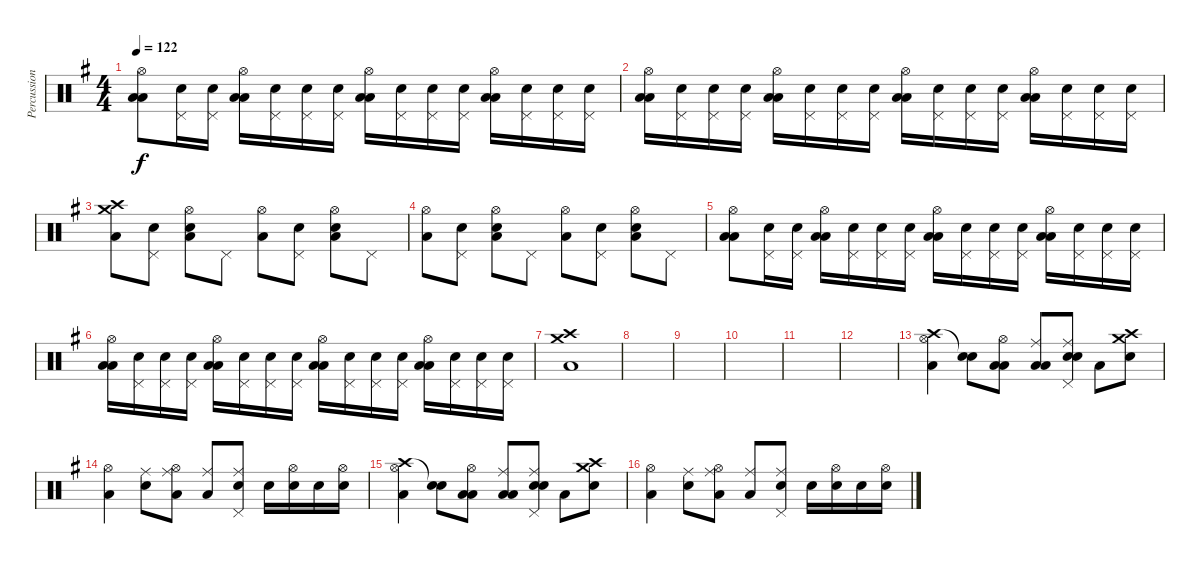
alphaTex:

\track ("Percussion" "Percussion") {instrument percussion}
\staff {score}
\articulation defaults
\ts (4 4)
\tempo 122
\clef neutral
\ks g
("Hi-Hat (open)" "Low Floor Tom (hit)" "Low Tom (hit)").8{dy f} ("Pedal Hi-Hat (hit)" "Snare (hit) 2").16 ("Pedal Hi-Hat (hit)" "Snare (hit) 2").16 ("Hi-Hat (open)" "Low Floor Tom (hit)" "Low Tom (hit)").16 ("Pedal Hi-Hat (hit)" "Snare (hit) 2").16 ("Pedal Hi-Hat (hit)" "Snare (hit) 2").16 ("Pedal Hi-Hat (hit)" "Snare (hit) 2").16 ("Hi-Hat (open)" "Low Floor Tom (hit)" "Low Tom (hit)").16 ("Pedal Hi-Hat (hit)" "Snare (hit) 2").16 ("Pedal Hi-Hat (hit)" "Snare (hit) 2").16 ("Pedal Hi-Hat (hit)" "Snare (hit) 2").16 ("Hi-Hat (open)" "Low Floor Tom (hit)" "Low Tom (hit)").16 ("Pedal Hi-Hat (hit)" "Snare (hit) 2").16 ("Pedal Hi-Hat (hit)" "Snare (hit) 2").16 ("Pedal Hi-Hat (hit)" "Snare (hit) 2").16 |
("Hi-Hat (open)" "Low Floor Tom (hit)" "Low Tom (hit)").16 ("Pedal Hi-Hat (hit)" "Snare (hit) 2").16 ("Pedal Hi-Hat (hit)" "Snare (hit) 2").16 ("Pedal Hi-Hat (hit)" "Snare (hit) 2").16 ("Hi-Hat (open)" "Low Floor Tom (hit)" "Low Tom (hit)").16 ("Pedal Hi-Hat (hit)" "Snare (hit) 2").16 ("Pedal Hi-Hat (hit)" "Snare (hit) 2").16 ("Pedal Hi-Hat (hit)" "Snare (hit) 2").16 ("Hi-Hat (open)" "Low Floor Tom (hit)" "Low Tom (hit)").16 ("Pedal Hi-Hat (hit)" "Snare (hit) 2").16 ("Pedal Hi-Hat (hit)" "Snare (hit) 2").16 ("Pedal Hi-Hat (hit)" "Snare (hit) 2").16 ("Hi-Hat (open)" "Low Floor Tom (hit)" "Low Tom (hit)").16 ("Pedal Hi-Hat (hit)" "Snare (hit) 2").16 ("Pedal Hi-Hat (hit)" "Snare (hit) 2").16 ("Pedal Hi-Hat (hit)" "Snare (hit) 2").16 |
("Crash high (hit)" "Crash medium (hit)" "Low Tom (hit)").8 ("Pedal Hi-Hat (hit)" "Snare (hit) 2").8 ("Hi-Hat (open)" "Snare (hit) 2" "Low Tom (hit)").8 "Pedal Hi-Hat (hit)".8 ("Hi-Hat (open)" "Low Tom (hit)").8 ("Pedal Hi-Hat (hit)" "Snare (hit) 2").8 ("Hi-Hat (open)" "Snare (hit) 2" "Low Tom (hit)").8 "Pedal Hi-Hat (hit)".8 |
("Hi-Hat (open)" "Low Tom (hit)").8 ("Pedal Hi-Hat (hit)" "Snare (hit) 2").8 ("Hi-Hat (open)" "Snare (hit) 2" "Low Tom (hit)").8 "Pedal Hi-Hat (hit)".8 ("Hi-Hat (open)" "Low Tom (hit)").8 ("Pedal Hi-Hat (hit)" "Snare (hit) 2").8 ("Hi-Hat (open)" "Snare (hit) 2" "Low Tom (hit)").8 "Pedal Hi-Hat (hit)".8 |
("Hi-Hat (open)" "Low Floor Tom (hit)" "Low Tom (hit)").8 ("Pedal Hi-Hat (hit)" "Snare (hit) 2").16 ("Pedal Hi-Hat (hit)" "Snare (hit) 2").16 ("Hi-Hat (open)" "Low Floor Tom (hit)" "Low Tom (hit)").16 ("Pedal Hi-Hat (hit)" "Snare (hit) 2").16 ("Pedal Hi-Hat (hit)" "Snare (hit) 2").16 ("Pedal Hi-Hat (hit)" "Snare (hit) 2").16 ("Hi-Hat (open)" "Low Floor Tom (hit)" "Low Tom (hit)").16 ("Pedal Hi-Hat (hit)" "Snare (hit) 2").16 ("Pedal Hi-Hat (hit)" "Snare (hit) 2").16 ("Pedal Hi-Hat (hit)" "Snare (hit) 2").16 ("Hi-Hat (open)" "Low Floor Tom (hit)" "Low Tom (hit)").16 ("Pedal Hi-Hat (hit)" "Snare (hit) 2").16 ("Pedal Hi-Hat (hit)" "Snare (hit) 2").16 ("Pedal Hi-Hat (hit)" "Snare (hit) 2").16 |
("Hi-Hat (open)" "Low Floor Tom (hit)" "Low Tom (hit)").16 ("Pedal Hi-Hat (hit)" "Snare (hit) 2").16 ("Pedal Hi-Hat (hit)" "Snare (hit) 2").16 ("Pedal Hi-Hat (hit)" "Snare (hit) 2").16 ("Hi-Hat (open)" "Low Floor Tom (hit)" "Low Tom (hit)").16 ("Pedal Hi-Hat (hit)" "Snare (hit) 2").16 ("Pedal Hi-Hat (hit)" "Snare (hit) 2").16 ("Pedal Hi-Hat (hit)" "Snare (hit) 2").16 ("Hi-Hat (open)" "Low Floor Tom (hit)" "Low Tom (hit)").16 ("Pedal Hi-Hat (hit)" "Snare (hit) 2").16 ("Pedal Hi-Hat (hit)" "Snare (hit) 2").16 ("Pedal Hi-Hat (hit)" "Snare (hit) 2").16 ("Hi-Hat (open)" "Low Floor Tom (hit)" "Low Tom (hit)").16 ("Pedal Hi-Hat (hit)" "Snare (hit) 2").16 ("Pedal Hi-Hat (hit)" "Snare (hit) 2").16 ("Pedal Hi-Hat (hit)" "Snare (hit) 2").16 |
("Crash high (hit)" "Crash medium (hit)" "Low Tom (hit)").1 |
|
|
|
|
|
("Crash high (hit)" "Hi-Hat (open)" "Low Tom (hit)").4 ("Snare (hit)"{t} "Electric Snare (hit)").8 ("Hi-Hat (open)" "Low Floor Tom (hit)" "Low Tom (hit)").8 ("Ride (middle)" "Low Floor Tom (hit)" "Low Tom (hit)").8 ("Pedal Hi-Hat (hit)" "Ride (middle)" "Electric Snare (hit)" "Snare (hit) 2").8 "Low Tom (hit)".8 ("Crash high (hit)" "Crash medium (hit)" "Electric Snare (hit)").8 |
("Hi-Hat (open)" "Low Tom (hit)").4 ("Ride (middle)" "Electric Snare (hit)").8 ("Hi-Hat (open)" "Ride (middle)" "Low Tom (hit)").8 ("Ride (middle)" "Low Tom (hit)").8 ("Pedal Hi-Hat (hit)" "Ride (middle)" "Electric Snare (hit)").8 "Electric Snare (hit)".16 ("Hi-Hat (open)" "Snare (hit) 2").16 "Snare (hit) 2".16 ("Hi-Hat (open)" "Electric Snare (hit)").16 |
("Crash high (hit)" "Hi-Hat (open)" "Low Tom (hit)").4 ("Snare (hit)"{t} "Electric Snare (hit)").8 ("Hi-Hat (open)" "Low Floor Tom (hit)" "Low Tom (hit)").8 ("Ride (middle)" "Low Floor Tom (hit)" "Low Tom (hit)").8 ("Pedal Hi-Hat (hit)" "Ride (middle)" "Electric Snare (hit)" "Snare (hit) 2").8 "Low Tom (hit)".8 ("Crash high (hit)" "Crash medium (hit)" "Electric Snare (hit)").8 |
("Hi-Hat (open)" "Low Tom (hit)").4 ("Ride (middle)" "Electric Snare (hit)").8 ("Hi-Hat (open)" "Ride (middle)" "Low Tom (hit)").8 ("Ride (middle)" "Low Tom (hit)").8 ("Pedal Hi-Hat (hit)" "Ride (middle)" "Electric Snare (hit)").8 "Electric Snare (hit)".16 ("Hi-Hat (open)" "Snare (hit) 2").16 "Snare (hit) 2".16 ("Hi-Hat (open)" "Electric Snare (hit)").16
